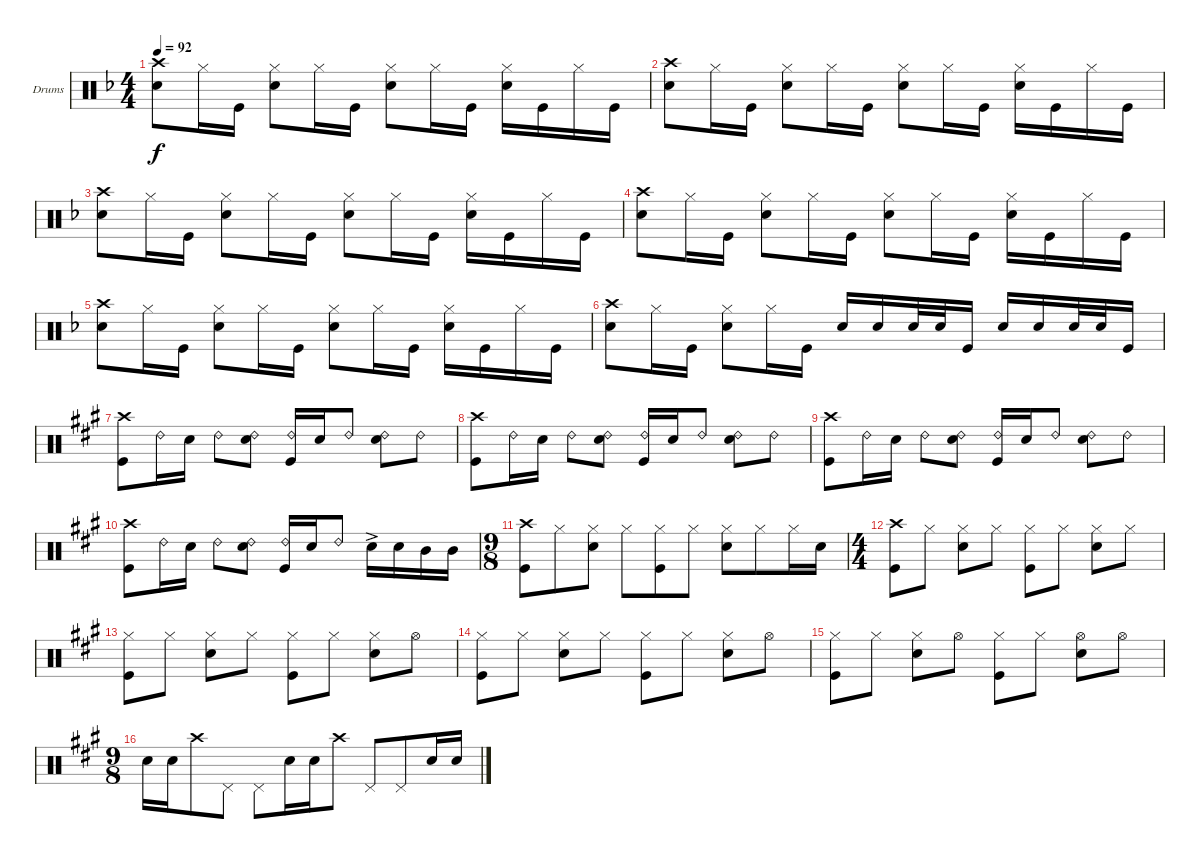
\defaultSystemsLayout 4
\bracketExtendMode groupsimilarinstruments
\firstSystemTrackNameOrientation horizontal
\otherSystemsTrackNameOrientation horizontal
\track ("Drumkit (Collins)" "Drums") {instrument percussion}
\staff {score}
\articulation defaults
\ts (4 4)
\tempo 92
\clef neutral
\ks dminor
("Crash high (hit)" "Snare (hit) 2").8{dy f} "Hi-Hat (closed)".16 "Kick (hit)".16 ("Snare (hit) 2" "Hi-Hat (closed)").8 "Hi-Hat (closed)".16 "Kick (hit)".16 ("Snare (hit) 2" "Hi-Hat (closed)").8 "Hi-Hat (closed)".16 "Kick (hit)".16 ("Snare (hit) 2" "Hi-Hat (closed)").16 "Kick (hit)".16 "Hi-Hat (closed)".16 "Kick (hit)".16 |
("Crash high (hit)" "Snare (hit) 2").8 "Hi-Hat (closed)".16 "Kick (hit)".16 ("Snare (hit) 2" "Hi-Hat (closed)").8 "Hi-Hat (closed)".16 "Kick (hit)".16 ("Snare (hit) 2" "Hi-Hat (closed)").8 "Hi-Hat (closed)".16 "Kick (hit)".16 ("Snare (hit) 2" "Hi-Hat (closed)").16 "Kick (hit)".16 "Hi-Hat (closed)".16 "Kick (hit)".16 |
("Crash high (hit)" "Snare (hit) 2").8 "Hi-Hat (closed)".16 "Kick (hit)".16 ("Snare (hit) 2" "Hi-Hat (closed)").8 "Hi-Hat (closed)".16 "Kick (hit)".16 ("Snare (hit) 2" "Hi-Hat (closed)").8 "Hi-Hat (closed)".16 "Kick (hit)".16 ("Snare (hit) 2" "Hi-Hat (closed)").16 "Kick (hit)".16 "Hi-Hat (closed)".16 "Kick (hit)".16 |
("Crash high (hit)" "Snare (hit) 2").8 "Hi-Hat (closed)".16 "Kick (hit)".16 ("Snare (hit) 2" "Hi-Hat (closed)").8 "Hi-Hat (closed)".16 "Kick (hit)".16 ("Snare (hit) 2" "Hi-Hat (closed)").8 "Hi-Hat (closed)".16 "Kick (hit)".16 ("Snare (hit) 2" "Hi-Hat (closed)").16 "Kick (hit)".16 "Hi-Hat (closed)".16 "Kick (hit)".16 |
("Crash high (hit)" "Snare (hit) 2").8 "Hi-Hat (closed)".16 "Kick (hit)".16 ("Snare (hit) 2" "Hi-Hat (closed)").8 "Hi-Hat (closed)".16 "Kick (hit)".16 ("Snare (hit) 2" "Hi-Hat (closed)").8 "Hi-Hat (closed)".16 "Kick (hit)".16 ("Snare (hit) 2" "Hi-Hat (closed)").16 "Kick (hit)".16 "Hi-Hat (closed)".16 "Kick (hit)".16 |
("Crash high (hit)" "Snare (hit) 2").8 "Hi-Hat (closed)".16 "Kick (hit)".16 ("Snare (hit) 2" "Hi-Hat (closed)").8 "Hi-Hat (closed)".16 "Kick (hit)".16 "Snare (hit) 2".16 "Snare (hit) 2".16 "Snare (hit) 2".32 "Snare (hit) 2".32 "Kick (hit)".16 "Snare (hit) 2".16 "Snare (hit) 2".16 "Snare (hit) 2".32 "Snare (hit) 2".32 "Kick (hit)".16 |
\ks f#minor
("Crash high (hit)" "Kick (hit)").8 "Ride (bell) 2".16 "Snare (hit) 2".16 "Ride (bell) 2".8 ("Ride (bell) 2" "Snare (hit) 2").8 ("Kick (hit)" "Ride (bell) 2").16 "Snare (hit) 2".16 "Ride (bell) 2".8 ("Ride (bell) 2" "Snare (hit) 2").8 "Ride (bell) 2".8 |
("Crash high (hit)" "Kick (hit)").8 "Ride (bell) 2".16 "Snare (hit) 2".16 "Ride (bell) 2".8 ("Ride (bell) 2" "Snare (hit) 2").8 ("Kick (hit)" "Ride (bell) 2").16 "Snare (hit) 2".16 "Ride (bell) 2".8 ("Ride (bell) 2" "Snare (hit) 2").8 "Ride (bell) 2".8 |
("Crash high (hit)" "Kick (hit)").8 "Ride (bell) 2".16 "Snare (hit) 2".16 "Ride (bell) 2".8 ("Ride (bell) 2" "Snare (hit) 2").8 ("Kick (hit)" "Ride (bell) 2").16 "Snare (hit) 2".16 "Ride (bell) 2".8 ("Ride (bell) 2" "Snare (hit) 2").8 "Ride (bell) 2".8 |
("Crash high (hit)" "Kick (hit)").8 "Ride (bell) 2".16 "Snare (hit) 2".16 "Ride (bell) 2".8 ("Ride (bell) 2" "Snare (hit) 2").8 ("Kick (hit)" "Ride (bell) 2").16 "Snare (hit) 2".16 "Ride (bell) 2".8 "Snare (hit) 2"{ac}.16 "Snare (hit) 2".16 "Mid Tom (hit)".16 "Mid Tom (hit)".16 |
\ts (9 8)
("Kick (hit)" "Crash high (hit)").8 "Hi-Hat (closed)".8 ("Snare (hit) 2" "Hi-Hat (closed)").8 "Hi-Hat (closed)".8 ("Kick (hit)" "Hi-Hat (closed)").8 "Hi-Hat (closed)".8 ("Snare (hit) 2" "Hi-Hat (closed)").8 "Hi-Hat (closed)".8 "Hi-Hat (closed)".16 "Snare (hit) 2".16 |
\ts (4 4)
("Kick (hit)" "Crash high (hit)").8 "Hi-Hat (closed)".8 ("Snare (hit) 2" "Hi-Hat (closed)").8 "Hi-Hat (closed)".8 ("Kick (hit)" "Hi-Hat (closed)").8 "Hi-Hat (closed)".8 ("Snare (hit) 2" "Hi-Hat (closed)").8 "Hi-Hat (closed)".8 |
("Kick (hit)" "Hi-Hat (closed)").8 "Hi-Hat (closed)".8 ("Snare (hit) 2" "Hi-Hat (closed)").8 "Hi-Hat (closed)".8 ("Kick (hit)" "Hi-Hat (closed)").8 "Hi-Hat (closed)".8 ("Snare (hit) 2" "Hi-Hat (closed)").8 "Hi-Hat (open)".8 |
("Kick (hit)" "Hi-Hat (closed)").8 "Hi-Hat (closed)".8 ("Snare (hit) 2" "Hi-Hat (closed)").8 "Hi-Hat (closed)".8 ("Kick (hit)" "Hi-Hat (closed)").8 "Hi-Hat (closed)".8 ("Snare (hit) 2" "Hi-Hat (closed)").8 "Hi-Hat (open)".8 |
("Kick (hit)" "Hi-Hat (closed)").8 "Hi-Hat (closed)".8 ("Snare (hit) 2" "Hi-Hat (closed)").8 "Hi-Hat (open)".8 ("Kick (hit)" "Hi-Hat (closed)").8 "Hi-Hat (closed)".8 ("Snare (hit) 2" "Hi-Hat (open)").8 "Hi-Hat (open)".8 |
\ts (9 8)
"Snare (hit) 2".16 "Snare (hit) 2".16 "Crash high (hit)".8 "Pedal Hi-Hat (hit)".8 "Pedal Hi-Hat (hit)".8 "Snare (hit) 2".16 "Snare (hit) 2".16 "Crash high (hit)".8 "Pedal Hi-Hat (hit)".8 "Pedal Hi-Hat (hit)".8 "Snare (hit) 2".16 "Snare (hit) 2".16
